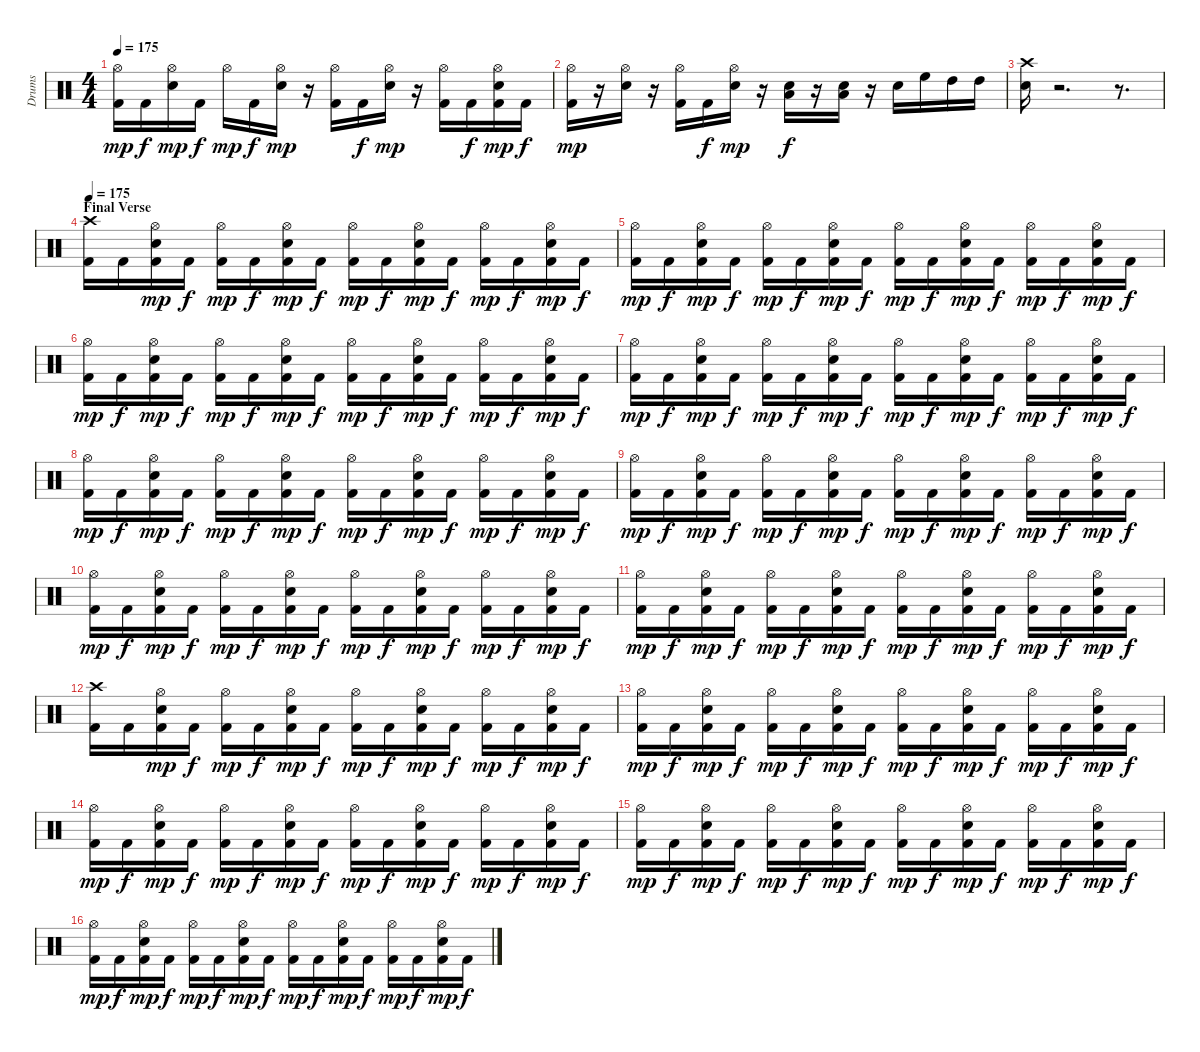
\track ("Drums" "Drums") {instrument percussion}
\staff {score}
\articulation defaults
\ts (4 4)
\tempo 175
\clef neutral
\ks c
("Kick (hit) 2" "Hi-Hat (open)").16{dy mp} "Kick (hit) 2".16{dy f} ("Snare (hit) 2" "Hi-Hat (open)").16{dy mp} "Kick (hit) 2".16{dy f} "Hi-Hat (open)".16{dy mp} "Kick (hit) 2".16{dy f} ("Snare (hit) 2" "Hi-Hat (open)").16{dy mp} r.16 ("Kick (hit) 2" "Hi-Hat (open)").16 "Kick (hit) 2".16{dy f} ("Snare (hit) 2" "Hi-Hat (open)").16{dy mp} r.16 ("Kick (hit) 2" "Hi-Hat (open)").16 "Kick (hit) 2".16{dy f} ("Snare (hit) 2" "Kick (hit) 2" "Hi-Hat (open)").16{dy mp} "Kick (hit) 2".16{dy f} |
("Kick (hit) 2" "Hi-Hat (open)").16{dy mp} r.16 ("Snare (hit) 2" "Hi-Hat (open)").16 r.16 ("Kick (hit) 2" "Hi-Hat (open)").16 "Kick (hit) 2".16{dy f} ("Snare (hit) 2" "Hi-Hat (open)").16{dy mp} r.16 ("Low Tom (hit)" "Snare (hit) 2").16{dy f} r.16 ("Low Tom (hit)" "Snare (hit) 2").16 r.16 "Snare (hit) 2".16 "High Floor Tom (hit)".16 "High Tom (hit)".16 "High Tom (hit)".16 |
("Crash high (hit)" "Snare (hit) 2").16 r.2{d} r.8{d} |
\section ("" "Final Verse")
\tempo 175
("Kick (hit) 2" "Crash high (hit)").16 "Kick (hit) 2".16 ("Snare (hit) 2" "Kick (hit) 2" "Hi-Hat (open)").16{dy mp} "Kick (hit) 2".16{dy f} ("Kick (hit) 2" "Hi-Hat (open)").16{dy mp} "Kick (hit) 2".16{dy f} ("Snare (hit) 2" "Kick (hit) 2" "Hi-Hat (open)").16{dy mp} "Kick (hit) 2".16{dy f} ("Kick (hit) 2" "Hi-Hat (open)").16{dy mp} "Kick (hit) 2".16{dy f} ("Snare (hit) 2" "Kick (hit) 2" "Hi-Hat (open)").16{dy mp} "Kick (hit) 2".16{dy f} ("Kick (hit) 2" "Hi-Hat (open)").16{dy mp} "Kick (hit) 2".16{dy f} ("Snare (hit) 2" "Kick (hit) 2" "Hi-Hat (open)").16{dy mp} "Kick (hit) 2".16{dy f} |
("Kick (hit) 2" "Hi-Hat (open)").16{dy mp} "Kick (hit) 2".16{dy f} ("Snare (hit) 2" "Kick (hit) 2" "Hi-Hat (open)").16{dy mp} "Kick (hit) 2".16{dy f} ("Kick (hit) 2" "Hi-Hat (open)").16{dy mp} "Kick (hit) 2".16{dy f} ("Snare (hit) 2" "Kick (hit) 2" "Hi-Hat (open)").16{dy mp} "Kick (hit) 2".16{dy f} ("Kick (hit) 2" "Hi-Hat (open)").16{dy mp} "Kick (hit) 2".16{dy f} ("Snare (hit) 2" "Kick (hit) 2" "Hi-Hat (open)").16{dy mp} "Kick (hit) 2".16{dy f} ("Kick (hit) 2" "Hi-Hat (open)").16{dy mp} "Kick (hit) 2".16{dy f} ("Snare (hit) 2" "Kick (hit) 2" "Hi-Hat (open)").16{dy mp} "Kick (hit) 2".16{dy f} |
("Kick (hit) 2" "Hi-Hat (open)").16{dy mp} "Kick (hit) 2".16{dy f} ("Snare (hit) 2" "Kick (hit) 2" "Hi-Hat (open)").16{dy mp} "Kick (hit) 2".16{dy f} ("Kick (hit) 2" "Hi-Hat (open)").16{dy mp} "Kick (hit) 2".16{dy f} ("Snare (hit) 2" "Kick (hit) 2" "Hi-Hat (open)").16{dy mp} "Kick (hit) 2".16{dy f} ("Kick (hit) 2" "Hi-Hat (open)").16{dy mp} "Kick (hit) 2".16{dy f} ("Snare (hit) 2" "Kick (hit) 2" "Hi-Hat (open)").16{dy mp} "Kick (hit) 2".16{dy f} ("Kick (hit) 2" "Hi-Hat (open)").16{dy mp} "Kick (hit) 2".16{dy f} ("Snare (hit) 2" "Kick (hit) 2" "Hi-Hat (open)").16{dy mp} "Kick (hit) 2".16{dy f} |
("Kick (hit) 2" "Hi-Hat (open)").16{dy mp} "Kick (hit) 2".16{dy f} ("Snare (hit) 2" "Kick (hit) 2" "Hi-Hat (open)").16{dy mp} "Kick (hit) 2".16{dy f} ("Kick (hit) 2" "Hi-Hat (open)").16{dy mp} "Kick (hit) 2".16{dy f} ("Snare (hit) 2" "Kick (hit) 2" "Hi-Hat (open)").16{dy mp} "Kick (hit) 2".16{dy f} ("Kick (hit) 2" "Hi-Hat (open)").16{dy mp} "Kick (hit) 2".16{dy f} ("Snare (hit) 2" "Kick (hit) 2" "Hi-Hat (open)").16{dy mp} "Kick (hit) 2".16{dy f} ("Kick (hit) 2" "Hi-Hat (open)").16{dy mp} "Kick (hit) 2".16{dy f} ("Snare (hit) 2" "Kick (hit) 2" "Hi-Hat (open)").16{dy mp} "Kick (hit) 2".16{dy f} |
("Kick (hit) 2" "Hi-Hat (open)").16{dy mp} "Kick (hit) 2".16{dy f} ("Snare (hit) 2" "Kick (hit) 2" "Hi-Hat (open)").16{dy mp} "Kick (hit) 2".16{dy f} ("Kick (hit) 2" "Hi-Hat (open)").16{dy mp} "Kick (hit) 2".16{dy f} ("Snare (hit) 2" "Kick (hit) 2" "Hi-Hat (open)").16{dy mp} "Kick (hit) 2".16{dy f} ("Kick (hit) 2" "Hi-Hat (open)").16{dy mp} "Kick (hit) 2".16{dy f} ("Snare (hit) 2" "Kick (hit) 2" "Hi-Hat (open)").16{dy mp} "Kick (hit) 2".16{dy f} ("Kick (hit) 2" "Hi-Hat (open)").16{dy mp} "Kick (hit) 2".16{dy f} ("Snare (hit) 2" "Kick (hit) 2" "Hi-Hat (open)").16{dy mp} "Kick (hit) 2".16{dy f} |
("Kick (hit) 2" "Hi-Hat (open)").16{dy mp} "Kick (hit) 2".16{dy f} ("Snare (hit) 2" "Kick (hit) 2" "Hi-Hat (open)").16{dy mp} "Kick (hit) 2".16{dy f} ("Kick (hit) 2" "Hi-Hat (open)").16{dy mp} "Kick (hit) 2".16{dy f} ("Snare (hit) 2" "Kick (hit) 2" "Hi-Hat (open)").16{dy mp} "Kick (hit) 2".16{dy f} ("Kick (hit) 2" "Hi-Hat (open)").16{dy mp} "Kick (hit) 2".16{dy f} ("Snare (hit) 2" "Kick (hit) 2" "Hi-Hat (open)").16{dy mp} "Kick (hit) 2".16{dy f} ("Kick (hit) 2" "Hi-Hat (open)").16{dy mp} "Kick (hit) 2".16{dy f} ("Snare (hit) 2" "Kick (hit) 2" "Hi-Hat (open)").16{dy mp} "Kick (hit) 2".16{dy f} |
("Kick (hit) 2" "Hi-Hat (open)").16{dy mp} "Kick (hit) 2".16{dy f} ("Snare (hit) 2" "Kick (hit) 2" "Hi-Hat (open)").16{dy mp} "Kick (hit) 2".16{dy f} ("Kick (hit) 2" "Hi-Hat (open)").16{dy mp} "Kick (hit) 2".16{dy f} ("Snare (hit) 2" "Kick (hit) 2" "Hi-Hat (open)").16{dy mp} "Kick (hit) 2".16{dy f} ("Kick (hit) 2" "Hi-Hat (open)").16{dy mp} "Kick (hit) 2".16{dy f} ("Snare (hit) 2" "Kick (hit) 2" "Hi-Hat (open)").16{dy mp} "Kick (hit) 2".16{dy f} ("Kick (hit) 2" "Hi-Hat (open)").16{dy mp} "Kick (hit) 2".16{dy f} ("Snare (hit) 2" "Kick (hit) 2" "Hi-Hat (open)").16{dy mp} "Kick (hit) 2".16{dy f} |
("Kick (hit) 2" "Hi-Hat (open)").16{dy mp} "Kick (hit) 2".16{dy f} ("Snare (hit) 2" "Kick (hit) 2" "Hi-Hat (open)").16{dy mp} "Kick (hit) 2".16{dy f} ("Kick (hit) 2" "Hi-Hat (open)").16{dy mp} "Kick (hit) 2".16{dy f} ("Snare (hit) 2" "Kick (hit) 2" "Hi-Hat (open)").16{dy mp} "Kick (hit) 2".16{dy f} ("Kick (hit) 2" "Hi-Hat (open)").16{dy mp} "Kick (hit) 2".16{dy f} ("Snare (hit) 2" "Kick (hit) 2" "Hi-Hat (open)").16{dy mp} "Kick (hit) 2".16{dy f} ("Kick (hit) 2" "Hi-Hat (open)").16{dy mp} "Kick (hit) 2".16{dy f} ("Snare (hit) 2" "Kick (hit) 2" "Hi-Hat (open)").16{dy mp} "Kick (hit) 2".16{dy f} |
("Kick (hit) 2" "Crash high (hit)").16 "Kick (hit) 2".16 ("Snare (hit) 2" "Kick (hit) 2" "Hi-Hat (open)").16{dy mp} "Kick (hit) 2".16{dy f} ("Kick (hit) 2" "Hi-Hat (open)").16{dy mp} "Kick (hit) 2".16{dy f} ("Snare (hit) 2" "Kick (hit) 2" "Hi-Hat (open)").16{dy mp} "Kick (hit) 2".16{dy f} ("Kick (hit) 2" "Hi-Hat (open)").16{dy mp} "Kick (hit) 2".16{dy f} ("Snare (hit) 2" "Kick (hit) 2" "Hi-Hat (open)").16{dy mp} "Kick (hit) 2".16{dy f} ("Kick (hit) 2" "Hi-Hat (open)").16{dy mp} "Kick (hit) 2".16{dy f} ("Snare (hit) 2" "Kick (hit) 2" "Hi-Hat (open)").16{dy mp} "Kick (hit) 2".16{dy f} |
("Kick (hit) 2" "Hi-Hat (open)").16{dy mp} "Kick (hit) 2".16{dy f} ("Snare (hit) 2" "Kick (hit) 2" "Hi-Hat (open)").16{dy mp} "Kick (hit) 2".16{dy f} ("Kick (hit) 2" "Hi-Hat (open)").16{dy mp} "Kick (hit) 2".16{dy f} ("Snare (hit) 2" "Kick (hit) 2" "Hi-Hat (open)").16{dy mp} "Kick (hit) 2".16{dy f} ("Kick (hit) 2" "Hi-Hat (open)").16{dy mp} "Kick (hit) 2".16{dy f} ("Snare (hit) 2" "Kick (hit) 2" "Hi-Hat (open)").16{dy mp} "Kick (hit) 2".16{dy f} ("Kick (hit) 2" "Hi-Hat (open)").16{dy mp} "Kick (hit) 2".16{dy f} ("Snare (hit) 2" "Kick (hit) 2" "Hi-Hat (open)").16{dy mp} "Kick (hit) 2".16{dy f} |
("Kick (hit) 2" "Hi-Hat (open)").16{dy mp} "Kick (hit) 2".16{dy f} ("Snare (hit) 2" "Kick (hit) 2" "Hi-Hat (open)").16{dy mp} "Kick (hit) 2".16{dy f} ("Kick (hit) 2" "Hi-Hat (open)").16{dy mp} "Kick (hit) 2".16{dy f} ("Snare (hit) 2" "Kick (hit) 2" "Hi-Hat (open)").16{dy mp} "Kick (hit) 2".16{dy f} ("Kick (hit) 2" "Hi-Hat (open)").16{dy mp} "Kick (hit) 2".16{dy f} ("Snare (hit) 2" "Kick (hit) 2" "Hi-Hat (open)").16{dy mp} "Kick (hit) 2".16{dy f} ("Kick (hit) 2" "Hi-Hat (open)").16{dy mp} "Kick (hit) 2".16{dy f} ("Snare (hit) 2" "Kick (hit) 2" "Hi-Hat (open)").16{dy mp} "Kick (hit) 2".16{dy f} |
("Kick (hit) 2" "Hi-Hat (open)").16{dy mp} "Kick (hit) 2".16{dy f} ("Snare (hit) 2" "Kick (hit) 2" "Hi-Hat (open)").16{dy mp} "Kick (hit) 2".16{dy f} ("Kick (hit) 2" "Hi-Hat (open)").16{dy mp} "Kick (hit) 2".16{dy f} ("Snare (hit) 2" "Kick (hit) 2" "Hi-Hat (open)").16{dy mp} "Kick (hit) 2".16{dy f} ("Kick (hit) 2" "Hi-Hat (open)").16{dy mp} "Kick (hit) 2".16{dy f} ("Snare (hit) 2" "Kick (hit) 2" "Hi-Hat (open)").16{dy mp} "Kick (hit) 2".16{dy f} ("Kick (hit) 2" "Hi-Hat (open)").16{dy mp} "Kick (hit) 2".16{dy f} ("Snare (hit) 2" "Kick (hit) 2" "Hi-Hat (open)").16{dy mp} "Kick (hit) 2".16{dy f} |
("Kick (hit) 2" "Hi-Hat (open)").16{dy mp} "Kick (hit) 2".16{dy f} ("Snare (hit) 2" "Kick (hit) 2" "Hi-Hat (open)").16{dy mp} "Kick (hit) 2".16{dy f} ("Kick (hit) 2" "Hi-Hat (open)").16{dy mp} "Kick (hit) 2".16{dy f} ("Snare (hit) 2" "Kick (hit) 2" "Hi-Hat (open)").16{dy mp} "Kick (hit) 2".16{dy f} ("Kick (hit) 2" "Hi-Hat (open)").16{dy mp} "Kick (hit) 2".16{dy f} ("Snare (hit) 2" "Kick (hit) 2" "Hi-Hat (open)").16{dy mp} "Kick (hit) 2".16{dy f} ("Kick (hit) 2" "Hi-Hat (open)").16{dy mp} "Kick (hit) 2".16{dy f} ("Snare (hit) 2" "Kick (hit) 2" "Hi-Hat (open)").16{dy mp} "Kick (hit) 2".16{dy f}
